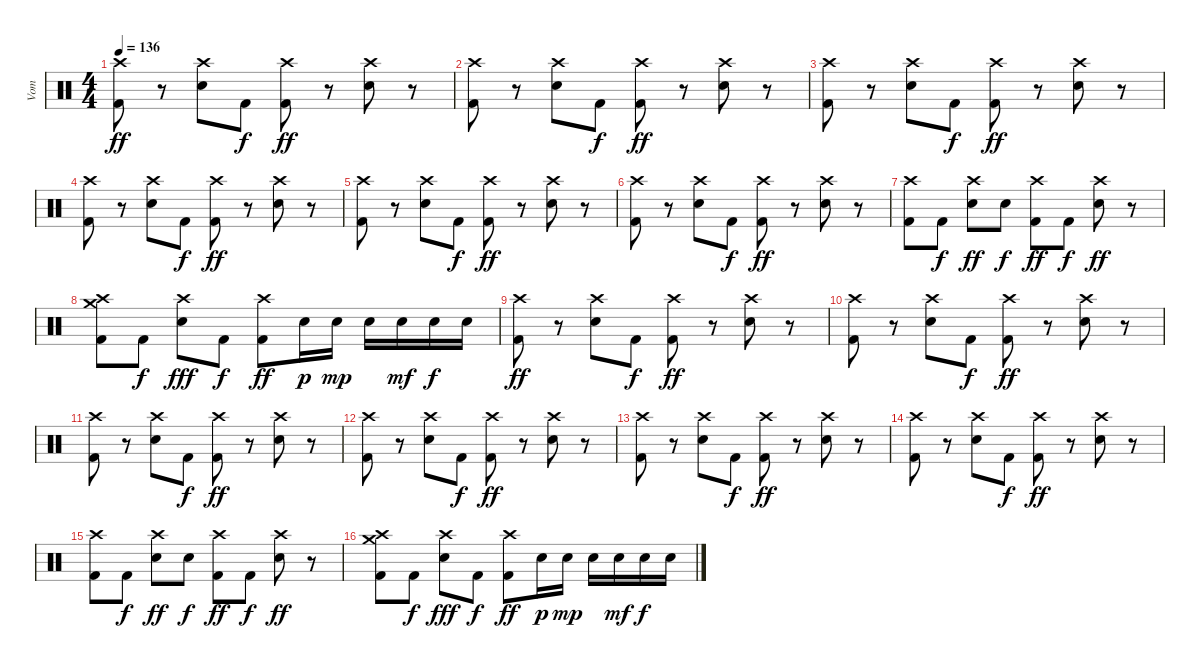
\track ("Vom" "Vom") {instrument percussion}
\staff {score}
\articulation defaults
\ts (4 4)
\tempo 136
\clef neutral
\ks c
("Crash high (hit)" "Kick (hit) 2").8{dy ff} r.8 ("Crash high (hit)" "Snare (hit) 2").8 "Kick (hit) 2".8{dy f} ("Crash high (hit)" "Kick (hit) 2").8{dy ff} r.8 ("Crash high (hit)" "Snare (hit) 2").8 r.8 |
("Crash high (hit)" "Kick (hit) 2").8 r.8 ("Crash high (hit)" "Snare (hit) 2").8 "Kick (hit) 2".8{dy f} ("Crash high (hit)" "Kick (hit) 2").8{dy ff} r.8 ("Crash high (hit)" "Snare (hit) 2").8 r.8 |
("Crash high (hit)" "Kick (hit) 2").8 r.8 ("Crash high (hit)" "Snare (hit) 2").8 "Kick (hit) 2".8{dy f} ("Crash high (hit)" "Kick (hit) 2").8{dy ff} r.8 ("Crash high (hit)" "Snare (hit) 2").8 r.8 |
("Crash high (hit)" "Kick (hit) 2").8 r.8 ("Crash high (hit)" "Snare (hit) 2").8 "Kick (hit) 2".8{dy f} ("Crash high (hit)" "Kick (hit) 2").8{dy ff} r.8 ("Crash high (hit)" "Snare (hit) 2").8 r.8 |
("Crash high (hit)" "Kick (hit) 2").8 r.8 ("Crash high (hit)" "Snare (hit) 2").8 "Kick (hit) 2".8{dy f} ("Crash high (hit)" "Kick (hit) 2").8{dy ff} r.8 ("Crash high (hit)" "Snare (hit) 2").8 r.8 |
("Crash high (hit)" "Kick (hit) 2").8 r.8 ("Crash high (hit)" "Snare (hit) 2").8 "Kick (hit) 2".8{dy f} ("Crash high (hit)" "Kick (hit) 2").8{dy ff} r.8 ("Crash high (hit)" "Snare (hit) 2").8 r.8 |
("Crash high (hit)" "Kick (hit) 2").8 "Kick (hit) 2".8{dy f} ("Crash high (hit)" "Snare (hit) 2").8{dy ff} "Snare (hit) 2".8{dy f} ("Crash high (hit)" "Kick (hit) 2").8{dy ff} "Kick (hit) 2".8{dy f} ("Crash high (hit)" "Snare (hit) 2").8{dy ff} r.8 |
("Crash high (hit)" "Kick (hit) 2" "Crash medium (hit)").8 "Kick (hit) 2".8{dy f} ("Crash high (hit)" "Snare (hit) 2").8{dy fff} "Kick (hit) 2".8{dy f} ("Crash high (hit)" "Kick (hit) 2").8{dy ff} "Snare (hit) 2".16{dy p} "Snare (hit) 2".16{dy mp} "Snare (hit) 2".16 "Snare (hit) 2".16{dy mf} "Snare (hit) 2".16{dy f} "Snare (hit) 2".16 |
("Crash high (hit)" "Kick (hit) 2").8{dy ff} r.8 ("Crash high (hit)" "Snare (hit) 2").8 "Kick (hit) 2".8{dy f} ("Crash high (hit)" "Kick (hit) 2").8{dy ff} r.8 ("Crash high (hit)" "Snare (hit) 2").8 r.8 |
("Crash high (hit)" "Kick (hit) 2").8 r.8 ("Crash high (hit)" "Snare (hit) 2").8 "Kick (hit) 2".8{dy f} ("Crash high (hit)" "Kick (hit) 2").8{dy ff} r.8 ("Crash high (hit)" "Snare (hit) 2").8 r.8 |
("Crash high (hit)" "Kick (hit) 2").8 r.8 ("Crash high (hit)" "Snare (hit) 2").8 "Kick (hit) 2".8{dy f} ("Crash high (hit)" "Kick (hit) 2").8{dy ff} r.8 ("Crash high (hit)" "Snare (hit) 2").8 r.8 |
("Crash high (hit)" "Kick (hit) 2").8 r.8 ("Crash high (hit)" "Snare (hit) 2").8 "Kick (hit) 2".8{dy f} ("Crash high (hit)" "Kick (hit) 2").8{dy ff} r.8 ("Crash high (hit)" "Snare (hit) 2").8 r.8 |
("Crash high (hit)" "Kick (hit) 2").8 r.8 ("Crash high (hit)" "Snare (hit) 2").8 "Kick (hit) 2".8{dy f} ("Crash high (hit)" "Kick (hit) 2").8{dy ff} r.8 ("Crash high (hit)" "Snare (hit) 2").8 r.8 |
("Crash high (hit)" "Kick (hit) 2").8 r.8 ("Crash high (hit)" "Snare (hit) 2").8 "Kick (hit) 2".8{dy f} ("Crash high (hit)" "Kick (hit) 2").8{dy ff} r.8 ("Crash high (hit)" "Snare (hit) 2").8 r.8 |
("Crash high (hit)" "Kick (hit) 2").8 "Kick (hit) 2".8{dy f} ("Crash high (hit)" "Snare (hit) 2").8{dy ff} "Snare (hit) 2".8{dy f} ("Crash high (hit)" "Kick (hit) 2").8{dy ff} "Kick (hit) 2".8{dy f} ("Crash high (hit)" "Snare (hit) 2").8{dy ff} r.8 |
("Crash high (hit)" "Kick (hit) 2" "Crash medium (hit)").8 "Kick (hit) 2".8{dy f} ("Crash high (hit)" "Snare (hit) 2").8{dy fff} "Kick (hit) 2".8{dy f} ("Crash high (hit)" "Kick (hit) 2").8{dy ff} "Snare (hit) 2".16{dy p} "Snare (hit) 2".16{dy mp} "Snare (hit) 2".16 "Snare (hit) 2".16{dy mf} "Snare (hit) 2".16{dy f} "Snare (hit) 2".16
